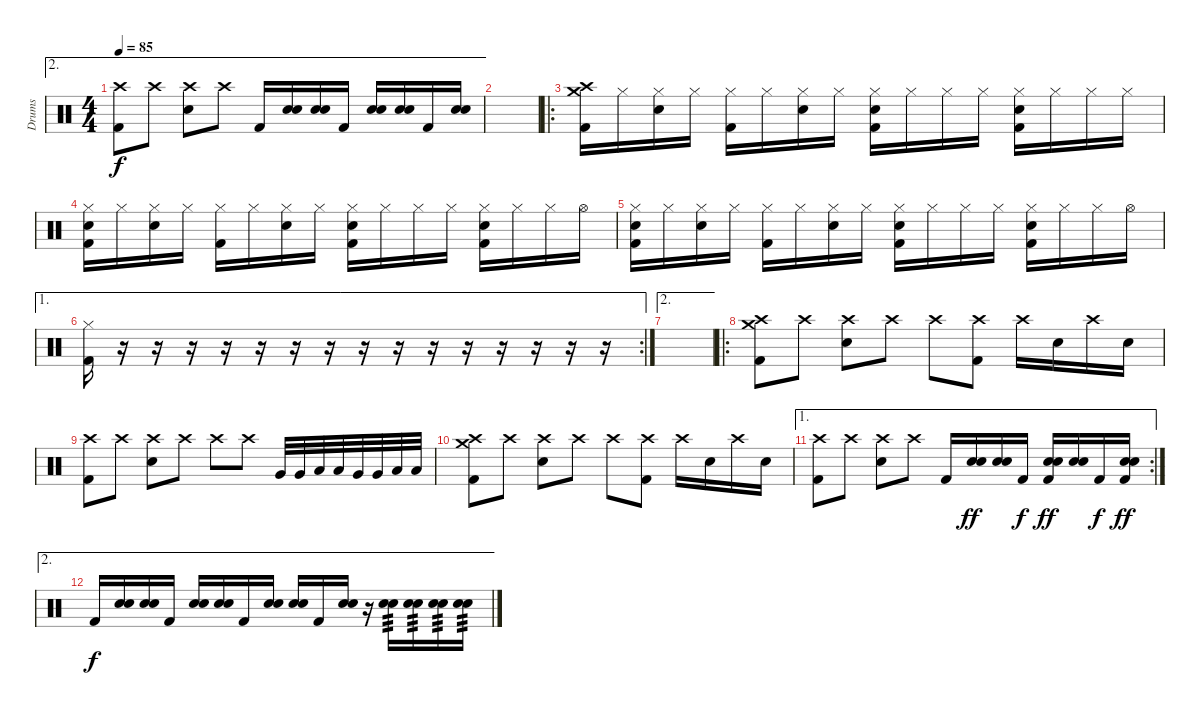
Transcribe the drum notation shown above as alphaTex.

\track ("Drums" "Drums") {instrument percussion}
\staff {score}
\articulation defaults
\ae 2
\ts (4 4)
\tempo 85
\clef neutral
\ks c
("Crash high (hit)" "Kick (hit) 2").8{dy f} "Crash high (hit)".8 ("Crash high (hit)" "Electric Snare (hit)").8 "Crash high (hit)".8 "Kick (hit) 2".16 ("Electric Snare (hit)" "Electric Snare (hit)").16 ("Electric Snare (hit)" "Electric Snare (hit)").16 "Kick (hit) 2".16 ("Electric Snare (hit)" "Electric Snare (hit)").16 ("Electric Snare (hit)" "Electric Snare (hit)").16 "Kick (hit) 2".16 ("Electric Snare (hit)" "Electric Snare (hit)").16 |
|
\ro
("Crash high (hit)" "Crash medium (hit)" "Kick (hit) 2").16 "Hi-Hat (closed)".16 ("Hi-Hat (closed)" "Electric Snare (hit)").16 "Hi-Hat (closed)".16 ("Hi-Hat (closed)" "Kick (hit) 2").16 "Hi-Hat (closed)".16 ("Hi-Hat (closed)" "Electric Snare (hit)").16 "Hi-Hat (closed)".16 ("Hi-Hat (closed)" "Electric Snare (hit)" "Kick (hit) 2").16 "Hi-Hat (closed)".16 "Hi-Hat (closed)".16 "Hi-Hat (closed)".16 ("Hi-Hat (closed)" "Electric Snare (hit)" "Kick (hit) 2").16 "Hi-Hat (closed)".16 "Hi-Hat (closed)".16 "Hi-Hat (closed)".16 |
("Hi-Hat (closed)" "Electric Snare (hit)" "Kick (hit) 2").16 "Hi-Hat (closed)".16 ("Hi-Hat (closed)" "Electric Snare (hit)").16 "Hi-Hat (closed)".16 ("Hi-Hat (closed)" "Kick (hit) 2").16 "Hi-Hat (closed)".16 ("Hi-Hat (closed)" "Electric Snare (hit)").16 "Hi-Hat (closed)".16 ("Hi-Hat (closed)" "Electric Snare (hit)" "Kick (hit) 2").16 "Hi-Hat (closed)".16 "Hi-Hat (closed)".16 "Hi-Hat (closed)".16 ("Hi-Hat (closed)" "Electric Snare (hit)" "Kick (hit) 2").16 "Hi-Hat (closed)".16 "Hi-Hat (closed)".16 "Hi-Hat (open)".16 |
("Hi-Hat (closed)" "Electric Snare (hit)" "Kick (hit) 2").16 "Hi-Hat (closed)".16 ("Hi-Hat (closed)" "Electric Snare (hit)").16 "Hi-Hat (closed)".16 ("Hi-Hat (closed)" "Kick (hit) 2").16 "Hi-Hat (closed)".16 ("Hi-Hat (closed)" "Electric Snare (hit)").16 "Hi-Hat (closed)".16 ("Hi-Hat (closed)" "Electric Snare (hit)" "Kick (hit) 2").16 "Hi-Hat (closed)".16 "Hi-Hat (closed)".16 "Hi-Hat (closed)".16 ("Hi-Hat (closed)" "Electric Snare (hit)" "Kick (hit) 2").16 "Hi-Hat (closed)".16 "Hi-Hat (closed)".16 "Hi-Hat (open)".16 |
\ae 1
\rc 2
("Hi-Hat (closed)" "Kick (hit) 2").16 r.16 r.16 r.16 r.16 r.16 r.16 r.16 r.16 r.16 r.16 r.16 r.16 r.16 r.16 r.16 |
\ae 2
|
\ro
("Crash high (hit)" "Crash medium (hit)" "Kick (hit) 2").8 "Crash high (hit)".8 ("Crash high (hit)" "Electric Snare (hit)").8 "Crash high (hit)".8 "Crash high (hit)".8 ("Crash high (hit)" "Kick (hit) 2").8 "Crash high (hit)".16 "Electric Snare (hit)".16 "Crash high (hit)".16 "Electric Snare (hit)".16 |
("Crash high (hit)" "Kick (hit) 2").8 "Crash high (hit)".8 ("Crash high (hit)" "Electric Snare (hit)").8 "Crash high (hit)".8 "Crash high (hit)".8 "Crash high (hit)".8 "Very Low Tom (hit)".32 "Very Low Tom (hit)".32 "Low Tom (hit)".32 "Low Tom (hit)".32 "Very Low Tom (hit)".32 "Very Low Tom (hit)".32 "Low Floor Tom (hit)".32 "Low Floor Tom (hit)".32 |
("Crash high (hit)" "Crash medium (hit)" "Kick (hit) 2").8 "Crash high (hit)".8 ("Crash high (hit)" "Electric Snare (hit)").8 "Crash high (hit)".8 "Crash high (hit)".8 ("Crash high (hit)" "Kick (hit) 2").8 "Crash high (hit)".16 "Electric Snare (hit)".16 "Crash high (hit)".16 "Electric Snare (hit)".16 |
\ae 1
\rc 2
("Crash high (hit)" "Kick (hit) 2").8 "Crash high (hit)".8 ("Crash high (hit)" "Electric Snare (hit)").8 "Crash high (hit)".8 "Kick (hit) 2".16 ("Electric Snare (hit)" "Electric Snare (hit)").16{dy ff} ("Electric Snare (hit)" "Electric Snare (hit)").16 "Kick (hit) 2".16{dy f} ("Electric Snare (hit)" "Electric Snare (hit)" "Kick (hit) 2").16{dy ff} ("Electric Snare (hit)" "Electric Snare (hit)").16 "Kick (hit) 2".16{dy f} ("Electric Snare (hit)" "Electric Snare (hit)" "Kick (hit) 2").16{dy ff} |
\ae 2 "Kick (hit) 2".16{dy f}
("Electric Snare (hit)" "Electric Snare (hit)").16 ("Electric Snare (hit)" "Electric Snare (hit)").16 "Kick (hit) 2".16 ("Electric Snare (hit)" "Electric Snare (hit)").16 ("Electric Snare (hit)" "Electric Snare (hit)").16 "Kick (hit) 2".16 ("Electric Snare (hit)" "Electric Snare (hit)").16 ("Electric Snare (hit)" "Electric Snare (hit)").16 "Kick (hit) 2".16 ("Electric Snare (hit)" "Electric Snare (hit)").16 r.16 ("Electric Snare (hit)" "Electric Snare (hit)").16{tp 3} ("Electric Snare (hit)" "Electric Snare (hit)").16{tp 3} ("Electric Snare (hit)" "Electric Snare (hit)").16{tp 3} ("Electric Snare (hit)" "Electric Snare (hit)").16{tp 3}
